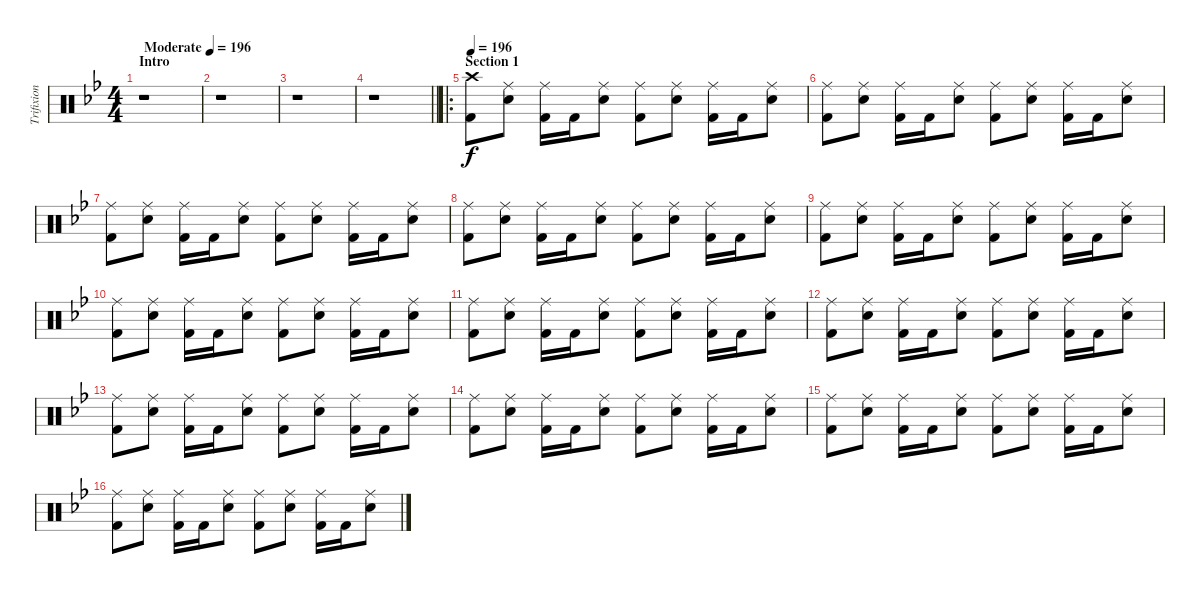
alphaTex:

\track ("Trifixion" "Trifixion") {instrument percussion}
\staff {score}
\articulation defaults
\ts (4 4)
\section ("" "Intro")
\tempo (196 "Moderate")
\clef neutral
\ks gminor
r.1{dy f} |
r.1 |
r.1 |
\barLineRight lightlight
r.1 |
\ro
\section ("" "Section 1")
\tempo 196
("Crash high (hit)" "Kick (hit) 2").8 ("Ride (middle)" "Electric Snare (hit)").8 ("Ride (middle)" "Kick (hit) 2").16 "Kick (hit) 2".16 ("Ride (middle)" "Electric Snare (hit)").8 ("Ride (middle)" "Kick (hit) 2").8 ("Ride (middle)" "Electric Snare (hit)").8 ("Ride (middle)" "Kick (hit) 2").16 "Kick (hit) 2".16 ("Ride (middle)" "Electric Snare (hit)").8 |
("Ride (middle)" "Kick (hit) 2").8 ("Ride (middle)" "Electric Snare (hit)").8 ("Ride (middle)" "Kick (hit) 2").16 "Kick (hit) 2".16 ("Ride (middle)" "Electric Snare (hit)").8 ("Ride (middle)" "Kick (hit) 2").8 ("Ride (middle)" "Electric Snare (hit)").8 ("Ride (middle)" "Kick (hit) 2").16 "Kick (hit) 2".16 ("Ride (middle)" "Electric Snare (hit)").8 |
("Ride (middle)" "Kick (hit) 2").8 ("Ride (middle)" "Electric Snare (hit)").8 ("Ride (middle)" "Kick (hit) 2").16 "Kick (hit) 2".16 ("Ride (middle)" "Electric Snare (hit)").8 ("Ride (middle)" "Kick (hit) 2").8 ("Ride (middle)" "Electric Snare (hit)").8 ("Ride (middle)" "Kick (hit) 2").16 "Kick (hit) 2".16 ("Ride (middle)" "Electric Snare (hit)").8 |
("Ride (middle)" "Kick (hit) 2").8 ("Ride (middle)" "Electric Snare (hit)").8 ("Ride (middle)" "Kick (hit) 2").16 "Kick (hit) 2".16 ("Ride (middle)" "Electric Snare (hit)").8 ("Ride (middle)" "Kick (hit) 2").8 ("Ride (middle)" "Electric Snare (hit)").8 ("Ride (middle)" "Kick (hit) 2").16 "Kick (hit) 2".16 ("Ride (middle)" "Electric Snare (hit)").8 |
("Ride (middle)" "Kick (hit) 2").8 ("Ride (middle)" "Electric Snare (hit)").8 ("Ride (middle)" "Kick (hit) 2").16 "Kick (hit) 2".16 ("Ride (middle)" "Electric Snare (hit)").8 ("Ride (middle)" "Kick (hit) 2").8 ("Ride (middle)" "Electric Snare (hit)").8 ("Ride (middle)" "Kick (hit) 2").16 "Kick (hit) 2".16 ("Ride (middle)" "Electric Snare (hit)").8 |
("Ride (middle)" "Kick (hit) 2").8 ("Ride (middle)" "Electric Snare (hit)").8 ("Ride (middle)" "Kick (hit) 2").16 "Kick (hit) 2".16 ("Ride (middle)" "Electric Snare (hit)").8 ("Ride (middle)" "Kick (hit) 2").8 ("Ride (middle)" "Electric Snare (hit)").8 ("Ride (middle)" "Kick (hit) 2").16 "Kick (hit) 2".16 ("Ride (middle)" "Electric Snare (hit)").8 |
("Ride (middle)" "Kick (hit) 2").8 ("Ride (middle)" "Electric Snare (hit)").8 ("Ride (middle)" "Kick (hit) 2").16 "Kick (hit) 2".16 ("Ride (middle)" "Electric Snare (hit)").8 ("Ride (middle)" "Kick (hit) 2").8 ("Ride (middle)" "Electric Snare (hit)").8 ("Ride (middle)" "Kick (hit) 2").16 "Kick (hit) 2".16 ("Ride (middle)" "Electric Snare (hit)").8 |
("Ride (middle)" "Kick (hit) 2").8 ("Ride (middle)" "Electric Snare (hit)").8 ("Ride (middle)" "Kick (hit) 2").16 "Kick (hit) 2".16 ("Ride (middle)" "Electric Snare (hit)").8 ("Ride (middle)" "Kick (hit) 2").8 ("Ride (middle)" "Electric Snare (hit)").8 ("Ride (middle)" "Kick (hit) 2").16 "Kick (hit) 2".16 ("Ride (middle)" "Electric Snare (hit)").8 |
("Ride (middle)" "Kick (hit) 2").8 ("Ride (middle)" "Electric Snare (hit)").8 ("Ride (middle)" "Kick (hit) 2").16 "Kick (hit) 2".16 ("Ride (middle)" "Electric Snare (hit)").8 ("Ride (middle)" "Kick (hit) 2").8 ("Ride (middle)" "Electric Snare (hit)").8 ("Ride (middle)" "Kick (hit) 2").16 "Kick (hit) 2".16 ("Ride (middle)" "Electric Snare (hit)").8 |
("Ride (middle)" "Kick (hit) 2").8 ("Ride (middle)" "Electric Snare (hit)").8 ("Ride (middle)" "Kick (hit) 2").16 "Kick (hit) 2".16 ("Ride (middle)" "Electric Snare (hit)").8 ("Ride (middle)" "Kick (hit) 2").8 ("Ride (middle)" "Electric Snare (hit)").8 ("Ride (middle)" "Kick (hit) 2").16 "Kick (hit) 2".16 ("Ride (middle)" "Electric Snare (hit)").8 |
("Ride (middle)" "Kick (hit) 2").8 ("Ride (middle)" "Electric Snare (hit)").8 ("Ride (middle)" "Kick (hit) 2").16 "Kick (hit) 2".16 ("Ride (middle)" "Electric Snare (hit)").8 ("Ride (middle)" "Kick (hit) 2").8 ("Ride (middle)" "Electric Snare (hit)").8 ("Ride (middle)" "Kick (hit) 2").16 "Kick (hit) 2".16 ("Ride (middle)" "Electric Snare (hit)").8 |
("Ride (middle)" "Kick (hit) 2").8 ("Ride (middle)" "Electric Snare (hit)").8 ("Ride (middle)" "Kick (hit) 2").16 "Kick (hit) 2".16 ("Ride (middle)" "Electric Snare (hit)").8 ("Ride (middle)" "Kick (hit) 2").8 ("Ride (middle)" "Electric Snare (hit)").8 ("Ride (middle)" "Kick (hit) 2").16 "Kick (hit) 2".16 ("Ride (middle)" "Electric Snare (hit)").8
